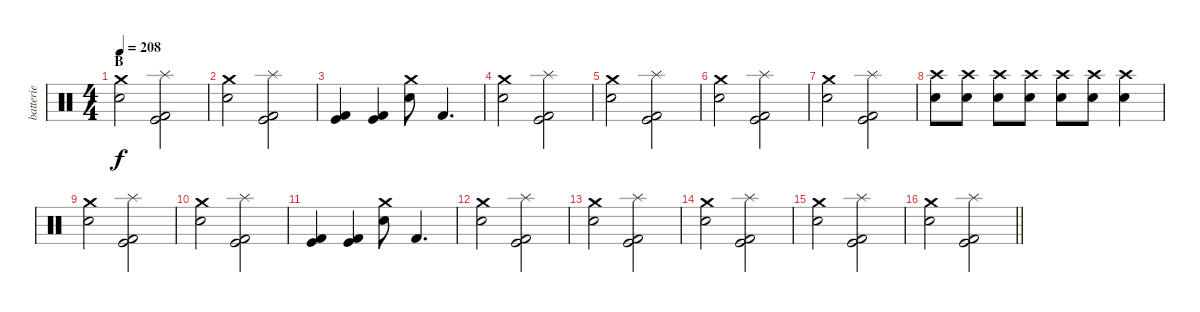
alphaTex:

\track ("batterie" "batterie") {instrument percussion}
\staff {score}
\articulation defaults
\ts (4 4)
\section ("" "B")
\tempo 208
\clef neutral
\ks c
("Snare (hit) 2" "Crash medium (hit)").2{dy f} ("Splash (hit)" "Kick (hit)" "Kick (hit) 2").2 |
("Snare (hit) 2" "Crash medium (hit)").2 ("Splash (hit)" "Kick (hit)" "Kick (hit) 2").2 |
("Kick (hit)" "Kick (hit) 2").4 ("Kick (hit)" "Kick (hit) 2").4 ("Crash medium (hit)" "Snare (hit) 2").8 "Kick (hit) 2".4{d} |
("Snare (hit) 2" "Crash medium (hit)").2 ("Splash (hit)" "Kick (hit)" "Kick (hit) 2").2 |
("Snare (hit) 2" "Crash medium (hit)").2 ("Splash (hit)" "Kick (hit)" "Kick (hit) 2").2 |
("Snare (hit) 2" "Crash medium (hit)").2 ("Splash (hit)" "Kick (hit)" "Kick (hit) 2").2 |
("Snare (hit) 2" "Crash medium (hit)").2 ("Splash (hit)" "Kick (hit)" "Kick (hit) 2").2 |
("Snare (hit) 2" "Crash high (hit)").8 ("Snare (hit) 2" "Crash high (hit)").8 ("Snare (hit) 2" "Crash high (hit)").8 ("Snare (hit) 2" "Crash high (hit)").8 ("Snare (hit) 2" "Crash high (hit)").8 ("Snare (hit) 2" "Crash high (hit)").8 ("Snare (hit) 2" "Crash high (hit)").4 |
("Snare (hit) 2" "Crash medium (hit)").2 ("Splash (hit)" "Kick (hit)" "Kick (hit) 2").2 |
("Snare (hit) 2" "Crash medium (hit)").2 ("Splash (hit)" "Kick (hit)" "Kick (hit) 2").2 |
("Kick (hit)" "Kick (hit) 2").4 ("Kick (hit)" "Kick (hit) 2").4 ("Crash medium (hit)" "Snare (hit) 2").8 "Kick (hit) 2".4{d} |
("Snare (hit) 2" "Crash medium (hit)").2 ("Splash (hit)" "Kick (hit)" "Kick (hit) 2").2 |
("Snare (hit) 2" "Crash medium (hit)").2 ("Splash (hit)" "Kick (hit)" "Kick (hit) 2").2 |
("Snare (hit) 2" "Crash medium (hit)").2 ("Splash (hit)" "Kick (hit)" "Kick (hit) 2").2 |
("Snare (hit) 2" "Crash medium (hit)").2 ("Splash (hit)" "Kick (hit)" "Kick (hit) 2").2 |
\barLineRight lightlight
("Snare (hit) 2" "Crash medium (hit)").2 ("Splash (hit)" "Kick (hit)" "Kick (hit) 2").2
